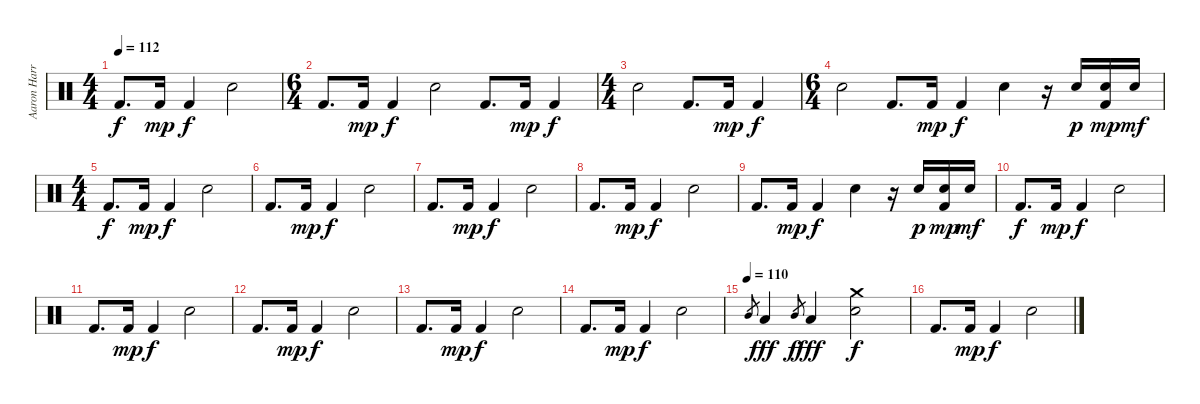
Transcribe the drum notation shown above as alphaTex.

\track ("Aaron Harris" "Aaron Harr") {instrument percussion}
\staff {score}
\articulation defaults
\ts (4 4)
\tempo 112
\clef neutral
\ks c "Kick (hit) 2".8{d dy f} "Kick (hit) 2".16{dy mp} "Kick (hit) 2".4{dy f} "Electric Snare (hit)".2
|
\ts (6 4)
"Kick (hit) 2".8{d} "Kick (hit) 2".16{dy mp} "Kick (hit) 2".4{dy f} "Electric Snare (hit)".2 "Kick (hit) 2".8{d} "Kick (hit) 2".16{dy mp} "Kick (hit) 2".4{dy f} |
\ts (4 4)
"Electric Snare (hit)".2 "Kick (hit) 2".8{d} "Kick (hit) 2".16{dy mp} "Kick (hit) 2".4{dy f} |
\ts (6 4)
"Electric Snare (hit)".2 "Kick (hit) 2".8{d} "Kick (hit) 2".16{dy mp} "Kick (hit) 2".4{dy f} "Electric Snare (hit)".4 r.16 "Electric Snare (hit)".16{dy p} ("Electric Snare (hit)" "Kick (hit) 2").16{dy mp} "Electric Snare (hit)".16{dy mf} |
\ts (4 4)
"Kick (hit) 2".8{d dy f} "Kick (hit) 2".16{dy mp} "Kick (hit) 2".4{dy f} "Electric Snare (hit)".2 |
"Kick (hit) 2".8{d} "Kick (hit) 2".16{dy mp} "Kick (hit) 2".4{dy f} "Electric Snare (hit)".2 |
"Kick (hit) 2".8{d} "Kick (hit) 2".16{dy mp} "Kick (hit) 2".4{dy f} "Electric Snare (hit)".2 |
"Kick (hit) 2".8{d} "Kick (hit) 2".16{dy mp} "Kick (hit) 2".4{dy f} "Electric Snare (hit)".2 |
"Kick (hit) 2".8{d} "Kick (hit) 2".16{dy mp} "Kick (hit) 2".4{dy f} "Electric Snare (hit)".4 r.16 "Electric Snare (hit)".16{dy p} ("Electric Snare (hit)" "Kick (hit) 2").16{dy mp} "Electric Snare (hit)".16{dy mf} |
"Kick (hit) 2".8{d dy f} "Kick (hit) 2".16{dy mp} "Kick (hit) 2".4{dy f} "Electric Snare (hit)".2 |
"Kick (hit) 2".8{d} "Kick (hit) 2".16{dy mp} "Kick (hit) 2".4{dy f} "Electric Snare (hit)".2 |
"Kick (hit) 2".8{d} "Kick (hit) 2".16{dy mp} "Kick (hit) 2".4{dy f} "Electric Snare (hit)".2 |
"Kick (hit) 2".8{d} "Kick (hit) 2".16{dy mp} "Kick (hit) 2".4{dy f} "Electric Snare (hit)".2 |
"Kick (hit) 2".8{d} "Kick (hit) 2".16{dy mp} "Kick (hit) 2".4{dy f} "Electric Snare (hit)".2 |
\tempo (110)
"Mid Tom (hit)".8{gr} "Low Tom (hit)".4{dy fff} "Mid Tom (hit)".8{gr dy f} "Low Tom (hit)".4{dy fff} ("Crash medium (hit)" "Electric Snare (hit)").2{dy f} |
"Kick (hit) 2".8{d} "Kick (hit) 2".16{dy mp} "Kick (hit) 2".4{dy f} "Electric Snare (hit)".2
